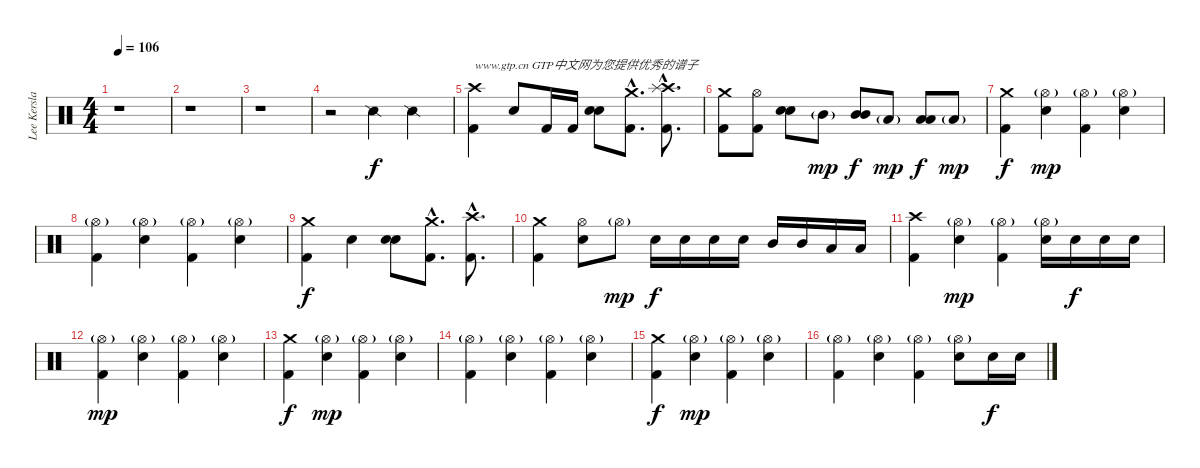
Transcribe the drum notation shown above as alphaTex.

\track ("Lee Kerslake" "Lee Kersla") {instrument percussion}
\staff {score}
\articulation defaults
\ts (4 4)
\tempo 106
\clef neutral
\ks c
r.1{dy f} |
r.1 |
r.1 |
r.2 "Snare (side stick) 2".4{volume 6} "Snare (side stick) 2".4 |
("Crash high (hit)" "Kick (hit) 2").4{txt "www.gtp.cn GTP中文网为您提供优秀的谱子" volume 15} "Snare (hit) 2".8 "Kick (hit) 2".16 "Kick (hit) 2".16 ("Snare (hit) 2" "Snare (hit) 2").8{bd 240} ("Crash medium (hit)"{hac} "Kick (hit) 2"{hac}).8{d} ("Crash high (hit)"{hac} "Splash (hit)"{hac} "Kick (hit) 2"{hac}).8{d} |
("Crash medium (hit)" "Kick (hit) 2").8 ("Hi-Hat (open)" "Kick (hit) 2").8 ("Snare (hit) 2" "Snare (hit) 2").8{bd 240} "Mid Tom (hit)"{g}.8{dy mp} ("Mid Tom (hit)" "Mid Tom (hit)").8{bd 240 dy f} "Low Tom (hit)"{g}.8{dy mp} ("Low Tom (hit)" "Low Tom (hit)").8{bd 240 dy f} "Low Tom (hit)"{g}.8{dy mp} |
("Crash medium (hit)" "Kick (hit) 2").4{dy f} ("Hi-Hat (open)"{g} "Snare (hit) 2").4{dy mp} ("Hi-Hat (open)"{g} "Kick (hit) 2").4 ("Hi-Hat (open)"{g} "Snare (hit) 2").4 |
("Hi-Hat (open)"{g} "Kick (hit) 2").4 ("Hi-Hat (open)"{g} "Snare (hit) 2").4 ("Hi-Hat (open)"{g} "Kick (hit) 2").4 ("Hi-Hat (open)"{g} "Snare (hit) 2").4 |
("Crash medium (hit)" "Kick (hit) 2").4{dy f} "Snare (hit) 2".4 ("Snare (hit) 2" "Snare (hit) 2").8{bd 240} ("Crash medium (hit)"{hac} "Kick (hit) 2"{hac}).8{d} ("Crash high (hit)"{hac} "Kick (hit) 2"{hac}).8{d} |
("Crash medium (hit)" "Kick (hit) 2").4 ("Hi-Hat (open)" "Snare (hit) 2").8 "Hi-Hat (open)"{g}.8{dy mp} "Snare (hit) 2".16{dy f} "Snare (hit) 2".16 "Snare (hit) 2".16 "Snare (hit) 2".16 "Mid Tom (hit)".16 "Mid Tom (hit)".16 "Low Tom (hit)".16 "Low Tom (hit)".16 |
("Crash high (hit)" "Kick (hit) 2").4 ("Hi-Hat (open)"{g} "Snare (hit) 2").4{dy mp} ("Hi-Hat (open)"{g} "Kick (hit) 2").4 ("Hi-Hat (open)"{g} "Snare (hit) 2").16 "Snare (hit) 2".16{dy f} "Snare (hit) 2".16 "Snare (hit) 2".16 |
("Hi-Hat (open)"{g} "Kick (hit) 2").4{dy mp} ("Hi-Hat (open)"{g} "Snare (hit) 2").4 ("Hi-Hat (open)"{g} "Kick (hit) 2").4 ("Hi-Hat (open)"{g} "Snare (hit) 2").4 |
("Crash medium (hit)" "Kick (hit) 2").4{dy f} ("Hi-Hat (open)"{g} "Snare (hit) 2").4{dy mp} ("Hi-Hat (open)"{g} "Kick (hit) 2").4 ("Hi-Hat (open)"{g} "Snare (hit) 2").4 |
("Hi-Hat (open)"{g} "Kick (hit) 2").4 ("Hi-Hat (open)"{g} "Snare (hit) 2").4 ("Hi-Hat (open)"{g} "Kick (hit) 2").4 ("Hi-Hat (open)"{g} "Snare (hit) 2").4 |
("Crash medium (hit)" "Kick (hit) 2").4{dy f} ("Hi-Hat (open)"{g} "Snare (hit) 2").4{dy mp} ("Hi-Hat (open)"{g} "Kick (hit) 2").4 ("Hi-Hat (open)"{g} "Snare (hit) 2").4 |
("Hi-Hat (open)"{g} "Kick (hit) 2").4 ("Hi-Hat (open)"{g} "Snare (hit) 2").4 ("Hi-Hat (open)"{g} "Kick (hit) 2").4 ("Hi-Hat (open)"{g} "Snare (hit) 2").8 "Snare (hit) 2".16{dy f} "Snare (hit) 2".16
